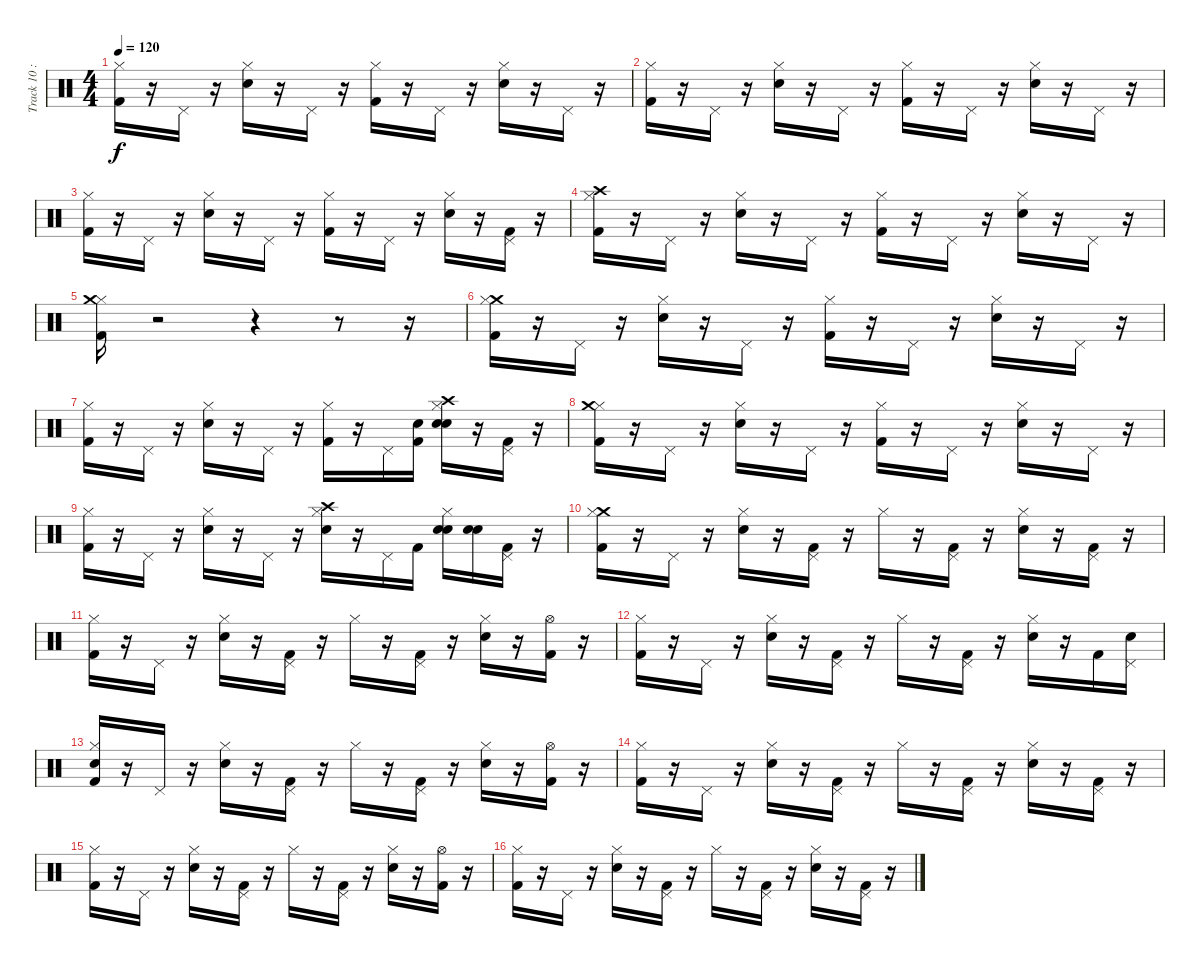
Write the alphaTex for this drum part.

\track ("Track 10 : unspecified" "Track 10 :") {instrument percussion}
\staff {score}
\articulation defaults
\ts (4 4)
\tempo 120
\clef neutral
\ks c
("Kick (hit) 2" "Hi-Hat (closed)").16{dy f} r.16 "Pedal Hi-Hat (hit)".16 r.16 ("Electric Snare (hit)" "Hi-Hat (closed)").16 r.16 "Pedal Hi-Hat (hit)".16 r.16 ("Hi-Hat (closed)" "Kick (hit) 2").16 r.16 "Pedal Hi-Hat (hit)".16 r.16 ("Electric Snare (hit)" "Hi-Hat (closed)").16 r.16 "Pedal Hi-Hat (hit)".16 r.16 |
("Kick (hit) 2" "Hi-Hat (closed)").16 r.16 "Pedal Hi-Hat (hit)".16 r.16 ("Electric Snare (hit)" "Hi-Hat (closed)").16 r.16 "Pedal Hi-Hat (hit)".16 r.16 ("Kick (hit) 2" "Hi-Hat (closed)").16 r.16 "Pedal Hi-Hat (hit)".16 r.16 ("Electric Snare (hit)" "Hi-Hat (closed)").16 r.16 "Pedal Hi-Hat (hit)".16 r.16 |
("Kick (hit) 2" "Hi-Hat (closed)").16 r.16 "Pedal Hi-Hat (hit)".16 r.16 ("Electric Snare (hit)" "Hi-Hat (closed)").16 r.16 "Pedal Hi-Hat (hit)".16 r.16 ("Hi-Hat (closed)" "Kick (hit) 2").16 r.16 "Pedal Hi-Hat (hit)".16 r.16 ("Electric Snare (hit)" "Hi-Hat (closed)").16 r.16 ("Pedal Hi-Hat (hit)" "Kick (hit) 2").16 r.16 |
("Hi-Hat (closed)" "Crash high (hit)" "Kick (hit) 2").16 r.16 "Pedal Hi-Hat (hit)".16 r.16 ("Hi-Hat (closed)" "Electric Snare (hit)").16 r.16 "Pedal Hi-Hat (hit)".16 r.16 ("Hi-Hat (closed)" "Kick (hit) 2").16 r.16 "Pedal Hi-Hat (hit)".16 r.16 ("Electric Snare (hit)" "Hi-Hat (closed)").16 r.16 "Pedal Hi-Hat (hit)".16 r.16 |
("Kick (hit) 2" "Hi-Hat (closed)" "Crash medium (hit)").16 r.2 r.4 r.8 r.16 |
("Kick (hit) 2" "Crash medium (hit)" "Hi-Hat (closed)").16 r.16 "Pedal Hi-Hat (hit)".16 r.16 ("Electric Snare (hit)" "Hi-Hat (closed)").16 r.16 "Pedal Hi-Hat (hit)".16 r.16 ("Kick (hit) 2" "Hi-Hat (closed)").16 r.16 "Pedal Hi-Hat (hit)".16 r.16 ("Hi-Hat (closed)" "Electric Snare (hit)").16 r.16 "Pedal Hi-Hat (hit)".16 r.16 |
("Kick (hit) 2" "Hi-Hat (closed)").16 r.16 "Pedal Hi-Hat (hit)".16 r.16 ("Electric Snare (hit)" "Hi-Hat (closed)").16 r.16 "Pedal Hi-Hat (hit)".16 r.16 ("Kick (hit) 2" "Hi-Hat (closed)").16 r.16 "Pedal Hi-Hat (hit)".16 ("Snare (hit)" "Kick (hit) 2").16 ("Snare (hit)" "Hi-Hat (closed)" "Electric Snare (hit)" "Crash high (hit)").16 r.16 ("Kick (hit) 2" "Pedal Hi-Hat (hit)").16 r.16 |
("Hi-Hat (closed)" "Crash medium (hit)" "Kick (hit) 2").16 r.16 "Pedal Hi-Hat (hit)".16 r.16 ("Electric Snare (hit)" "Hi-Hat (closed)").16 r.16 "Pedal Hi-Hat (hit)".16 r.16 ("Hi-Hat (closed)" "Kick (hit) 2").16 r.16 "Pedal Hi-Hat (hit)".16 r.16 ("Hi-Hat (closed)" "Electric Snare (hit)").16 r.16 "Pedal Hi-Hat (hit)".16 r.16 |
("Kick (hit) 2" "Hi-Hat (closed)").16 r.16 "Pedal Hi-Hat (hit)".16 r.16 ("Hi-Hat (closed)" "Electric Snare (hit)").16 r.16 "Pedal Hi-Hat (hit)".16 r.16 ("Hi-Hat (closed)" "Electric Snare (hit)" "Crash high (hit)").16 r.16 "Pedal Hi-Hat (hit)".16 "Kick (hit) 2".16 ("Snare (hit)" "Electric Snare (hit)" "Hi-Hat (closed)").16 ("Snare (hit)" "Electric Snare (hit)").16 ("Kick (hit) 2" "Pedal Hi-Hat (hit)").16 r.16 |
("Crash medium (hit)" "Hi-Hat (closed)" "Kick (hit) 2").16 r.16 "Pedal Hi-Hat (hit)".16 r.16 ("Hi-Hat (closed)" "Electric Snare (hit)").16 r.16 ("Pedal Hi-Hat (hit)" "Kick (hit) 2").16 r.16 "Hi-Hat (closed)".16 r.16 ("Pedal Hi-Hat (hit)" "Kick (hit) 2").16 r.16 ("Electric Snare (hit)" "Hi-Hat (closed)").16 r.16 ("Pedal Hi-Hat (hit)" "Kick (hit) 2").16 r.16 |
("Kick (hit) 2" "Hi-Hat (closed)").16 r.16 "Pedal Hi-Hat (hit)".16 r.16 ("Electric Snare (hit)" "Hi-Hat (closed)").16 r.16 ("Kick (hit) 2" "Pedal Hi-Hat (hit)").16 r.16 "Hi-Hat (closed)".16 r.16 ("Pedal Hi-Hat (hit)" "Kick (hit) 2").16 r.16 ("Electric Snare (hit)" "Hi-Hat (closed)").16 r.16 ("Kick (hit) 2" "Hi-Hat (open)").16 r.16 |
("Hi-Hat (closed)" "Kick (hit) 2").16 r.16 "Pedal Hi-Hat (hit)".16 r.16 ("Hi-Hat (closed)" "Electric Snare (hit)").16 r.16 ("Pedal Hi-Hat (hit)" "Kick (hit) 2").16 r.16 "Hi-Hat (closed)".16 r.16 ("Pedal Hi-Hat (hit)" "Kick (hit) 2").16 r.16 ("Hi-Hat (closed)" "Electric Snare (hit)").16 r.16 "Kick (hit) 2".16 ("Snare (hit)" "Pedal Hi-Hat (hit)").16 |
("Snare (hit)" "Hi-Hat (closed)" "Kick (hit) 2").16 r.16 "Pedal Hi-Hat (hit)".16 r.16 ("Electric Snare (hit)" "Hi-Hat (closed)").16 r.16 ("Kick (hit) 2" "Pedal Hi-Hat (hit)").16 r.16 "Hi-Hat (closed)".16 r.16 ("Kick (hit) 2" "Pedal Hi-Hat (hit)").16 r.16 ("Hi-Hat (closed)" "Electric Snare (hit)").16 r.16 ("Hi-Hat (open)" "Kick (hit) 2").16 r.16 |
("Kick (hit) 2" "Hi-Hat (closed)").16 r.16 "Pedal Hi-Hat (hit)".16 r.16 ("Electric Snare (hit)" "Hi-Hat (closed)").16 r.16 ("Pedal Hi-Hat (hit)" "Kick (hit) 2").16 r.16 "Hi-Hat (closed)".16 r.16 ("Pedal Hi-Hat (hit)" "Kick (hit) 2").16 r.16 ("Electric Snare (hit)" "Hi-Hat (closed)").16 r.16 ("Kick (hit) 2" "Pedal Hi-Hat (hit)").16 r.16 |
("Kick (hit) 2" "Hi-Hat (closed)").16 r.16 "Pedal Hi-Hat (hit)".16 r.16 ("Electric Snare (hit)" "Hi-Hat (closed)").16 r.16 ("Pedal Hi-Hat (hit)" "Kick (hit) 2").16 r.16 "Hi-Hat (closed)".16 r.16 ("Pedal Hi-Hat (hit)" "Kick (hit) 2").16 r.16 ("Hi-Hat (closed)" "Electric Snare (hit)").16 r.16 ("Hi-Hat (open)" "Kick (hit) 2").16 r.16 |
("Hi-Hat (closed)" "Kick (hit) 2").16 r.16 "Pedal Hi-Hat (hit)".16 r.16 ("Electric Snare (hit)" "Hi-Hat (closed)").16 r.16 ("Pedal Hi-Hat (hit)" "Kick (hit) 2").16 r.16 "Hi-Hat (closed)".16 r.16 ("Pedal Hi-Hat (hit)" "Kick (hit) 2").16 r.16 ("Hi-Hat (closed)" "Electric Snare (hit)").16 r.16 ("Pedal Hi-Hat (hit)" "Kick (hit) 2").16 r.16
